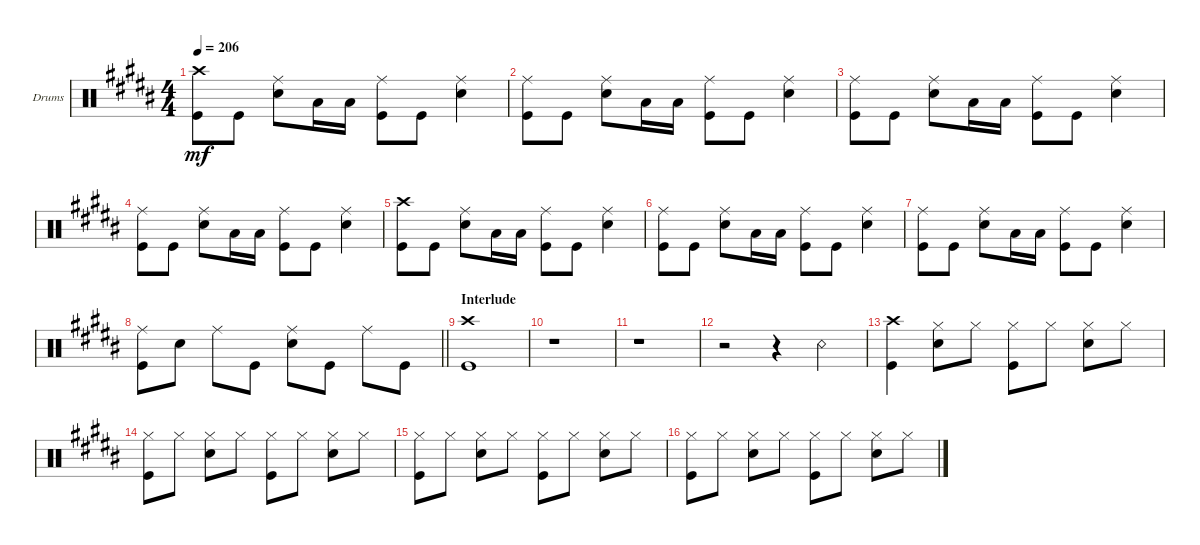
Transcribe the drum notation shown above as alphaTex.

\defaultSystemsLayout 4
\bracketExtendMode groupsimilarinstruments
\firstSystemTrackNameOrientation horizontal
\otherSystemsTrackNameOrientation horizontal
\track ("Drums" "Drums") {instrument percussion}
\staff {score}
\articulation defaults
\ts (4 4)
\tempo 206
\clef neutral
\ks b
("Kick (hit)" "Crash high (hit)").8{dy mf} "Kick (hit)".8 ("Snare (hit) 2" "Ride (middle)").8 "Low Tom (hit)".16 "Low Tom (hit)".16 ("Kick (hit)" "Ride (middle)").8 "Kick (hit)".8 ("Snare (hit) 2" "Ride (middle)").4 |
("Kick (hit)" "Ride (middle)").8 "Kick (hit)".8 ("Snare (hit) 2" "Ride (middle)").8 "Low Tom (hit)".16 "Low Tom (hit)".16 ("Kick (hit)" "Ride (middle)").8 "Kick (hit)".8 ("Snare (hit) 2" "Ride (middle)").4 |
("Kick (hit)" "Ride (middle)").8 "Kick (hit)".8 ("Snare (hit) 2" "Ride (middle)").8 "Low Tom (hit)".16 "Low Tom (hit)".16 ("Kick (hit)" "Ride (middle)").8 "Kick (hit)".8 ("Snare (hit) 2" "Ride (middle)").4 |
("Kick (hit)" "Ride (middle)").8 "Kick (hit)".8 ("Snare (hit) 2" "Ride (middle)").8 "Low Tom (hit)".16 "Low Tom (hit)".16 ("Kick (hit)" "Ride (middle)").8 "Kick (hit)".8 ("Snare (hit) 2" "Ride (middle)").4 |
("Kick (hit)" "Crash high (hit)").8 "Kick (hit)".8 ("Snare (hit) 2" "Ride (middle)").8 "Low Tom (hit)".16 "Low Tom (hit)".16 ("Kick (hit)" "Ride (middle)").8 "Kick (hit)".8 ("Snare (hit) 2" "Ride (middle)").4 |
("Kick (hit)" "Ride (middle)").8 "Kick (hit)".8 ("Snare (hit) 2" "Ride (middle)").8 "Low Tom (hit)".16 "Low Tom (hit)".16 ("Kick (hit)" "Ride (middle)").8 "Kick (hit)".8 ("Snare (hit) 2" "Ride (middle)").4 |
("Kick (hit)" "Ride (middle)").8 "Kick (hit)".8 ("Snare (hit) 2" "Ride (middle)").8 "Low Tom (hit)".16 "Low Tom (hit)".16 ("Kick (hit)" "Ride (middle)").8 "Kick (hit)".8 ("Snare (hit) 2" "Ride (middle)").4 |
\barLineRight lightlight
("Kick (hit)" "Ride (middle)").8 "Snare (hit) 2".8 "Ride (middle)".8 "Kick (hit)".8 ("Snare (hit) 2" "Ride (middle)").8 "Kick (hit)".8 "Ride (middle)".8 "Kick (hit)".8 |
\section ("" "Interlude")
("Kick (hit)" "Crash high (hit)").1 |
r.1 |
r.1 |
r.2 r.4 "Snare (rim shot)".4 |
("Kick (hit)" "Crash high (hit)").4 ("Hi-Hat (closed)" "Snare (hit) 2").8 "Hi-Hat (closed)".8 ("Hi-Hat (closed)" "Kick (hit)").8 "Hi-Hat (closed)".8 ("Hi-Hat (closed)" "Snare (hit) 2").8 "Hi-Hat (closed)".8 |
("Hi-Hat (closed)" "Kick (hit)").8 "Hi-Hat (closed)".8 ("Hi-Hat (closed)" "Snare (hit) 2").8 "Hi-Hat (closed)".8 ("Hi-Hat (closed)" "Kick (hit)").8 "Hi-Hat (closed)".8 ("Hi-Hat (closed)" "Snare (hit) 2").8 "Hi-Hat (closed)".8 |
("Hi-Hat (closed)" "Kick (hit)").8 "Hi-Hat (closed)".8 ("Hi-Hat (closed)" "Snare (hit) 2").8 "Hi-Hat (closed)".8 ("Hi-Hat (closed)" "Kick (hit)").8 "Hi-Hat (closed)".8 ("Hi-Hat (closed)" "Snare (hit) 2").8 "Hi-Hat (closed)".8 |
("Hi-Hat (closed)" "Kick (hit)").8 "Hi-Hat (closed)".8 ("Hi-Hat (closed)" "Snare (hit) 2").8 "Hi-Hat (closed)".8 ("Hi-Hat (closed)" "Kick (hit)").8 "Hi-Hat (closed)".8 ("Hi-Hat (closed)" "Snare (hit) 2").8 "Hi-Hat (closed)".8
